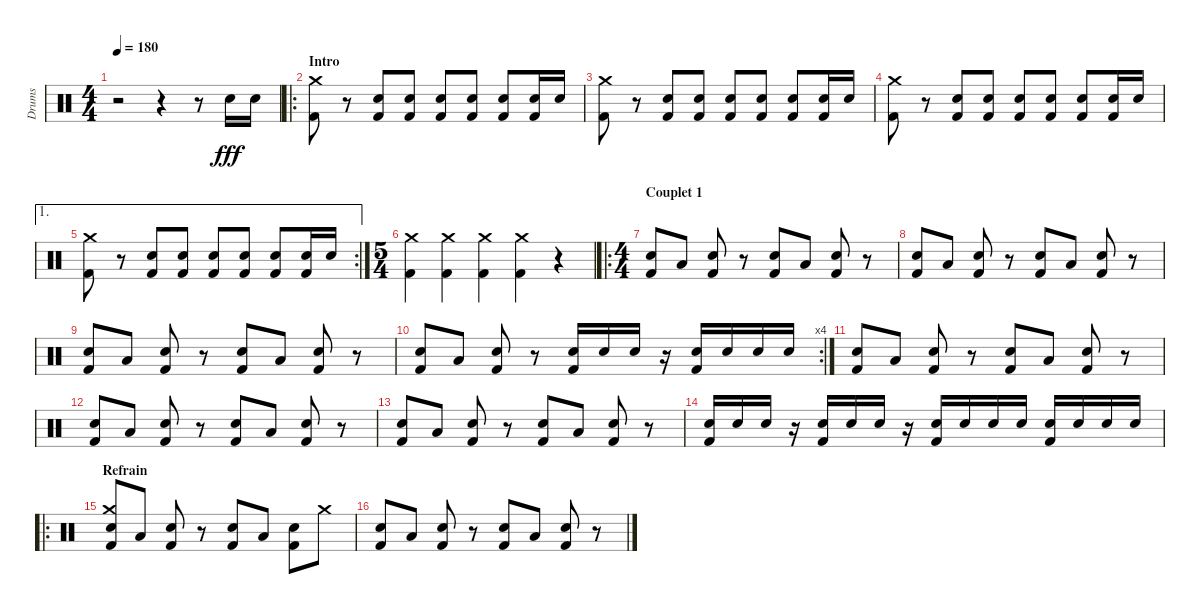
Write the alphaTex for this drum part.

\track ("Drums" "Drums") {instrument percussion}
\staff {score}
\articulation defaults
\ts (4 4)
\tempo 180
\clef neutral
\ks c
r.2{dy fff} r.4 r.8 "Snare (hit) 2".16 "Snare (hit) 2".16 |
\ro
\section ("" "Intro")
("Crash medium (hit)" "Kick (hit) 2").8 r.8 ("Snare (hit) 2" "Kick (hit) 2").8 ("Snare (hit) 2" "Kick (hit) 2").8 ("Snare (hit) 2" "Kick (hit) 2").8 ("Snare (hit) 2" "Kick (hit) 2").8 ("Snare (hit) 2" "Kick (hit) 2").8 ("Snare (hit) 2" "Kick (hit) 2").16 "Snare (hit) 2".16 |
("Crash medium (hit)" "Kick (hit) 2").8 r.8 ("Snare (hit) 2" "Kick (hit) 2").8 ("Snare (hit) 2" "Kick (hit) 2").8 ("Snare (hit) 2" "Kick (hit) 2").8 ("Snare (hit) 2" "Kick (hit) 2").8 ("Snare (hit) 2" "Kick (hit) 2").8 ("Snare (hit) 2" "Kick (hit) 2").16 "Snare (hit) 2".16 |
("Crash medium (hit)" "Kick (hit) 2").8 r.8 ("Snare (hit) 2" "Kick (hit) 2").8 ("Snare (hit) 2" "Kick (hit) 2").8 ("Snare (hit) 2" "Kick (hit) 2").8 ("Snare (hit) 2" "Kick (hit) 2").8 ("Snare (hit) 2" "Kick (hit) 2").8 ("Snare (hit) 2" "Kick (hit) 2").16 "Snare (hit) 2".16 |
\ae 1
\rc 2
("Crash medium (hit)" "Kick (hit) 2").8 r.8 ("Snare (hit) 2" "Kick (hit) 2").8 ("Snare (hit) 2" "Kick (hit) 2").8 ("Snare (hit) 2" "Kick (hit) 2").8 ("Snare (hit) 2" "Kick (hit) 2").8 ("Snare (hit) 2" "Kick (hit) 2").8 ("Snare (hit) 2" "Kick (hit) 2").16 "Snare (hit) 2".16 |
\ts (5 4)
("Crash medium (hit)" "Kick (hit) 2").4 ("Crash medium (hit)" "Kick (hit) 2").4 ("Crash medium (hit)" "Kick (hit) 2").4 ("Crash medium (hit)" "Kick (hit) 2").4 r.4 |
\ro
\ts (4 4)
\section ("" "Couplet 1")
("Snare (hit) 2" "Kick (hit) 2").8 "Low Floor Tom (hit)".8 ("Snare (hit) 2" "Kick (hit) 2").8 r.8 ("Snare (hit) 2" "Kick (hit) 2").8 "Low Floor Tom (hit)".8 ("Snare (hit) 2" "Kick (hit) 2").8 r.8 |
("Snare (hit) 2" "Kick (hit) 2").8 "Low Floor Tom (hit)".8 ("Snare (hit) 2" "Kick (hit) 2").8 r.8 ("Snare (hit) 2" "Kick (hit) 2").8 "Low Floor Tom (hit)".8 ("Snare (hit) 2" "Kick (hit) 2").8 r.8 |
("Snare (hit) 2" "Kick (hit) 2").8 "Low Floor Tom (hit)".8 ("Snare (hit) 2" "Kick (hit) 2").8 r.8 ("Snare (hit) 2" "Kick (hit) 2").8 "Low Floor Tom (hit)".8 ("Snare (hit) 2" "Kick (hit) 2").8 r.8 |
\rc 4
("Snare (hit) 2" "Kick (hit) 2").8 "Low Floor Tom (hit)".8 ("Snare (hit) 2" "Kick (hit) 2").8 r.8 ("Snare (hit) 2" "Kick (hit) 2").16 "Snare (hit) 2".16 "Snare (hit) 2".16 r.16 ("Snare (hit) 2" "Kick (hit) 2").16 "Snare (hit) 2".16 "Snare (hit) 2".16 "Snare (hit) 2".16 |
("Snare (hit) 2" "Kick (hit) 2").8 "Low Floor Tom (hit)".8 ("Snare (hit) 2" "Kick (hit) 2").8 r.8 ("Snare (hit) 2" "Kick (hit) 2").8 "Low Floor Tom (hit)".8 ("Snare (hit) 2" "Kick (hit) 2").8 r.8 |
("Snare (hit) 2" "Kick (hit) 2").8 "Low Floor Tom (hit)".8 ("Snare (hit) 2" "Kick (hit) 2").8 r.8 ("Snare (hit) 2" "Kick (hit) 2").8 "Low Floor Tom (hit)".8 ("Snare (hit) 2" "Kick (hit) 2").8 r.8 |
("Snare (hit) 2" "Kick (hit) 2").8 "Low Floor Tom (hit)".8 ("Snare (hit) 2" "Kick (hit) 2").8 r.8 ("Snare (hit) 2" "Kick (hit) 2").8 "Low Floor Tom (hit)".8 ("Snare (hit) 2" "Kick (hit) 2").8 r.8 |
("Snare (hit) 2" "Kick (hit) 2").16 "Snare (hit) 2".16 "Snare (hit) 2".16 r.16 ("Snare (hit) 2" "Kick (hit) 2").16 "Snare (hit) 2".16 "Snare (hit) 2".16 r.16 ("Snare (hit) 2" "Kick (hit) 2").16 "Snare (hit) 2".16 "Snare (hit) 2".16 "Snare (hit) 2".16 ("Snare (hit) 2" "Kick (hit) 2").16 "Snare (hit) 2".16 "Snare (hit) 2".16 "Snare (hit) 2".16 |
\ro
\section ("" "Refrain")
("Crash medium (hit)" "Snare (hit) 2" "Kick (hit) 2").8 "Low Floor Tom (hit)".8 ("Snare (hit) 2" "Kick (hit) 2").8 r.8 ("Snare (hit) 2" "Kick (hit) 2").8 "Low Floor Tom (hit)".8 ("Snare (hit) 2" "Kick (hit) 2").8 "Crash medium (hit)".8 |
("Snare (hit) 2" "Kick (hit) 2").8 "Low Floor Tom (hit)".8 ("Snare (hit) 2" "Kick (hit) 2").8 r.8 ("Snare (hit) 2" "Kick (hit) 2").8 "Low Floor Tom (hit)".8 ("Snare (hit) 2" "Kick (hit) 2").8 r.8
